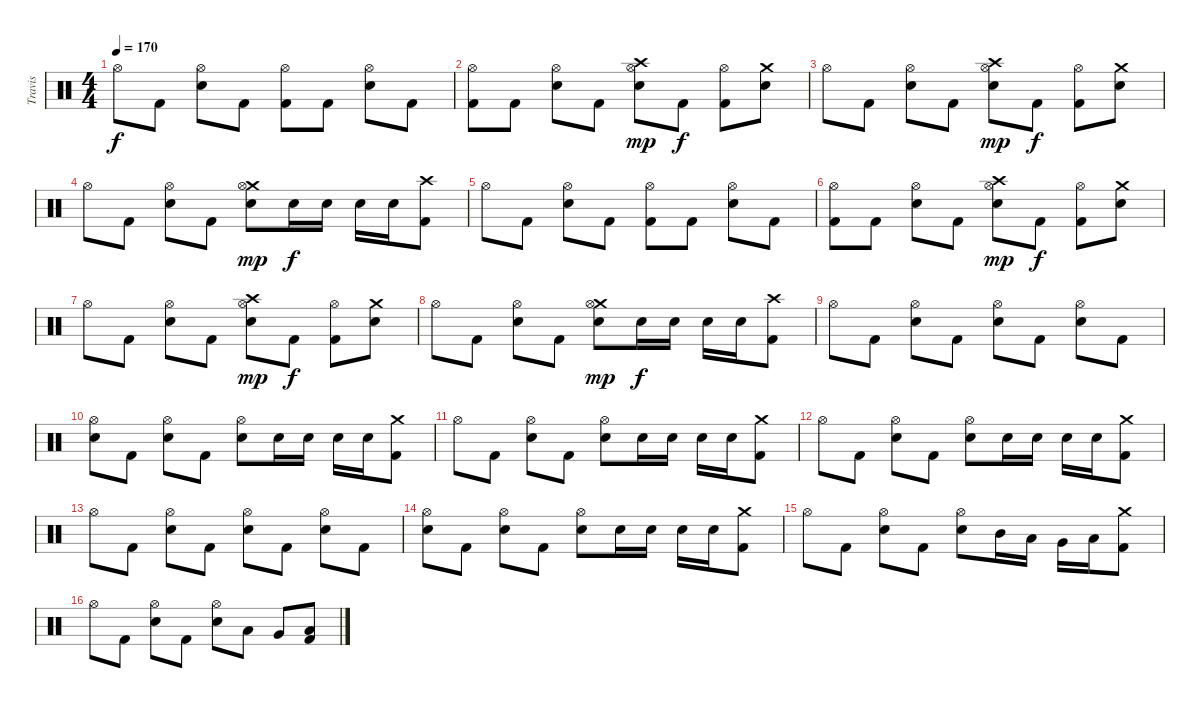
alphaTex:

\track ("Travis" "Travis") {instrument percussion}
\staff {score}
\articulation defaults
\ts (4 4)
\tempo 170
\clef neutral
\ks c "Hi-Hat (open)".8{dy f} "Kick (hit) 2".8
("Hi-Hat (open)" "Snare (hit) 2").8 "Kick (hit) 2".8 ("Hi-Hat (open)" "Kick (hit) 2").8 "Kick (hit) 2".8 ("Hi-Hat (open)" "Snare (hit) 2").8 "Kick (hit) 2".8 |
("Hi-Hat (open)" "Kick (hit) 2").8 "Kick (hit) 2".8 ("Hi-Hat (open)" "Snare (hit) 2").8 "Kick (hit) 2".8 ("Crash high (hit)" "Hi-Hat (open)" "Snare (hit) 2").8{dy mp} "Kick (hit) 2".8{dy f} ("Hi-Hat (open)" "Kick (hit) 2").8 ("Crash medium (hit)" "Snare (hit) 2").8 |
"Hi-Hat (open)".8 "Kick (hit) 2".8 ("Hi-Hat (open)" "Snare (hit) 2").8 "Kick (hit) 2".8 ("Crash high (hit)" "Hi-Hat (open)" "Snare (hit) 2").8{dy mp} "Kick (hit) 2".8{dy f} ("Hi-Hat (open)" "Kick (hit) 2").8 ("Crash medium (hit)" "Snare (hit) 2").8 |
"Hi-Hat (open)".8 "Kick (hit) 2".8 ("Hi-Hat (open)" "Snare (hit) 2").8 "Kick (hit) 2".8 ("Crash medium (hit)" "Hi-Hat (open)" "Snare (hit) 2").8{dy mp} "Snare (hit) 2".16{dy f} "Snare (hit) 2".16 "Snare (hit) 2".16 "Snare (hit) 2".16 ("Crash high (hit)" "Kick (hit) 2").8 |
"Hi-Hat (open)".8 "Kick (hit) 2".8 ("Hi-Hat (open)" "Snare (hit) 2").8 "Kick (hit) 2".8 ("Hi-Hat (open)" "Kick (hit) 2").8 "Kick (hit) 2".8 ("Hi-Hat (open)" "Snare (hit) 2").8 "Kick (hit) 2".8 |
("Hi-Hat (open)" "Kick (hit) 2").8 "Kick (hit) 2".8 ("Hi-Hat (open)" "Snare (hit) 2").8 "Kick (hit) 2".8 ("Crash high (hit)" "Hi-Hat (open)" "Snare (hit) 2").8{dy mp} "Kick (hit) 2".8{dy f} ("Hi-Hat (open)" "Kick (hit) 2").8 ("Crash medium (hit)" "Snare (hit) 2").8 |
"Hi-Hat (open)".8 "Kick (hit) 2".8 ("Hi-Hat (open)" "Snare (hit) 2").8 "Kick (hit) 2".8 ("Crash high (hit)" "Hi-Hat (open)" "Snare (hit) 2").8{dy mp} "Kick (hit) 2".8{dy f} ("Hi-Hat (open)" "Kick (hit) 2").8 ("Crash medium (hit)" "Snare (hit) 2").8 |
"Hi-Hat (open)".8 "Kick (hit) 2".8 ("Hi-Hat (open)" "Snare (hit) 2").8 "Kick (hit) 2".8 ("Crash medium (hit)" "Hi-Hat (open)" "Snare (hit) 2").8{dy mp} "Snare (hit) 2".16{dy f} "Snare (hit) 2".16 "Snare (hit) 2".16 "Snare (hit) 2".16 ("Crash high (hit)" "Kick (hit) 2").8 |
"Hi-Hat (open)".8 "Kick (hit) 2".8 ("Hi-Hat (open)" "Snare (hit) 2").8 "Kick (hit) 2".8 ("Hi-Hat (open)" "Snare (hit) 2").8 "Kick (hit) 2".8 ("Hi-Hat (open)" "Snare (hit) 2").8 "Kick (hit) 2".8 |
("Hi-Hat (open)" "Snare (hit) 2").8 "Kick (hit) 2".8 ("Hi-Hat (open)" "Snare (hit) 2").8 "Kick (hit) 2".8 ("Hi-Hat (open)" "Snare (hit) 2").8 "Snare (hit) 2".16 "Snare (hit) 2".16 "Snare (hit) 2".16 "Snare (hit) 2".16 ("Crash medium (hit)" "Kick (hit) 2").8 |
"Hi-Hat (open)".8 "Kick (hit) 2".8 ("Hi-Hat (open)" "Snare (hit) 2").8 "Kick (hit) 2".8 ("Hi-Hat (open)" "Snare (hit) 2").8 "Snare (hit) 2".16 "Snare (hit) 2".16 "Snare (hit) 2".16 "Snare (hit) 2".16 ("Crash medium (hit)" "Kick (hit) 2").8 |
"Hi-Hat (open)".8 "Kick (hit) 2".8 ("Hi-Hat (open)" "Snare (hit) 2").8 "Kick (hit) 2".8 ("Hi-Hat (open)" "Snare (hit) 2").8 "Snare (hit) 2".16 "Snare (hit) 2".16 "Snare (hit) 2".16 "Snare (hit) 2".16 ("Crash medium (hit)" "Kick (hit) 2").8 |
"Hi-Hat (open)".8 "Kick (hit) 2".8 ("Hi-Hat (open)" "Snare (hit) 2").8 "Kick (hit) 2".8 ("Hi-Hat (open)" "Snare (hit) 2").8 "Kick (hit) 2".8 ("Hi-Hat (open)" "Snare (hit) 2").8 "Kick (hit) 2".8 |
("Hi-Hat (open)" "Snare (hit) 2").8 "Kick (hit) 2".8 ("Hi-Hat (open)" "Snare (hit) 2").8 "Kick (hit) 2".8 ("Hi-Hat (open)" "Snare (hit) 2").8 "Snare (hit) 2".16 "Snare (hit) 2".16 "Snare (hit) 2".16 "Snare (hit) 2".16 ("Crash medium (hit)" "Kick (hit) 2").8 |
"Hi-Hat (open)".8 "Kick (hit) 2".8 ("Hi-Hat (open)" "Snare (hit) 2").8 "Kick (hit) 2".8 ("Hi-Hat (open)" "Snare (hit) 2").8 "Mid Tom (hit)".16 "Low Tom (hit)".16 "Very Low Tom (hit)".16 "Low Floor Tom (hit)".16 ("Crash medium (hit)" "Kick (hit) 2").8 |
"Hi-Hat (open)".8 "Kick (hit) 2".8 ("Hi-Hat (open)" "Snare (hit) 2").8 "Kick (hit) 2".8 ("Hi-Hat (open)" "Snare (hit) 2").8 "Low Tom (hit)".8 "Very Low Tom (hit)".8 ("Low Floor Tom (hit)" "Kick (hit) 2").8
